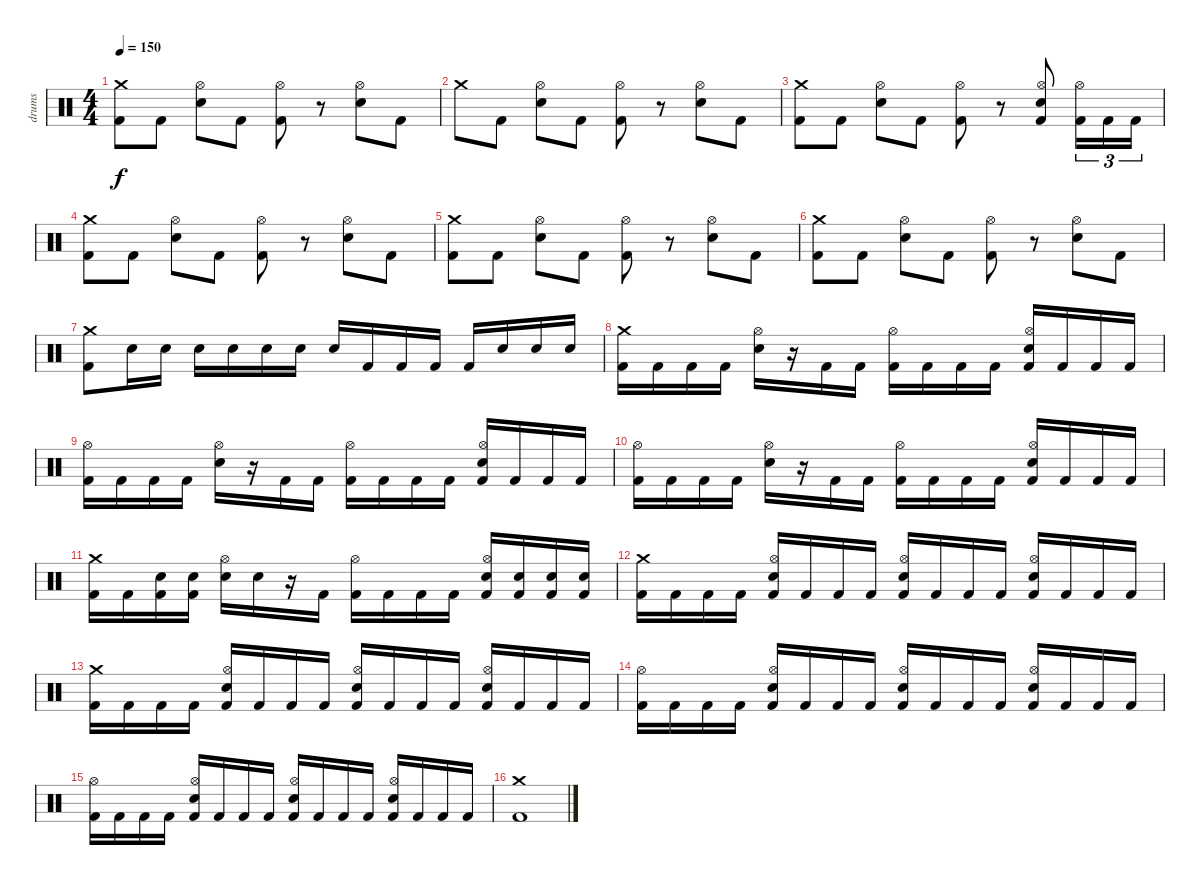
\track ("drums" "drums") {instrument percussion}
\staff {score}
\articulation defaults
\ts (4 4)
\tempo 150
\clef neutral
\ks c
("Crash medium (hit)" "Kick (hit) 2").8{dy f} "Kick (hit) 2".8 ("Hi-Hat (open)" "Electric Snare (hit)").8 "Kick (hit) 2".8 ("Hi-Hat (open)" "Kick (hit) 2").8 r.8 ("Hi-Hat (open)" "Electric Snare (hit)").8 "Kick (hit) 2".8 |
"Crash medium (hit)".8 "Kick (hit) 2".8 ("Hi-Hat (open)" "Electric Snare (hit)").8 "Kick (hit) 2".8 ("Hi-Hat (open)" "Kick (hit) 2").8 r.8 ("Hi-Hat (open)" "Electric Snare (hit)").8 "Kick (hit) 2".8 |
("Crash medium (hit)" "Kick (hit) 2").8 "Kick (hit) 2".8 ("Hi-Hat (open)" "Electric Snare (hit)").8 "Kick (hit) 2".8 ("Hi-Hat (open)" "Kick (hit) 2").8 r.8 ("Hi-Hat (open)" "Electric Snare (hit)" "Kick (hit) 2").8 ("Hi-Hat (open)" "Kick (hit) 2").16{tu (3 2)} "Kick (hit) 2".16{tu (3 2)} "Kick (hit) 2".16{tu (3 2)} |
("Crash medium (hit)" "Kick (hit) 2").8 "Kick (hit) 2".8 ("Hi-Hat (open)" "Electric Snare (hit)").8 "Kick (hit) 2".8 ("Hi-Hat (open)" "Kick (hit) 2").8 r.8 ("Hi-Hat (open)" "Electric Snare (hit)").8 "Kick (hit) 2".8 |
("Crash medium (hit)" "Kick (hit) 2").8 "Kick (hit) 2".8 ("Hi-Hat (open)" "Electric Snare (hit)").8 "Kick (hit) 2".8 ("Hi-Hat (open)" "Kick (hit) 2").8 r.8 ("Hi-Hat (open)" "Electric Snare (hit)").8 "Kick (hit) 2".8 |
("Crash medium (hit)" "Kick (hit) 2").8 "Kick (hit) 2".8 ("Hi-Hat (open)" "Electric Snare (hit)").8 "Kick (hit) 2".8 ("Hi-Hat (open)" "Kick (hit) 2").8 r.8 ("Hi-Hat (open)" "Electric Snare (hit)").8 "Kick (hit) 2".8 |
("Crash medium (hit)" "Kick (hit) 2").8 "Electric Snare (hit)".16 "Electric Snare (hit)".16 "Electric Snare (hit)".16 "Snare (hit) 2".16 "Snare (hit) 2".16 "Snare (hit) 2".16 "Snare (hit) 2".16 "Kick (hit) 2".16 "Kick (hit) 2".16 "Kick (hit) 2".16 "Kick (hit) 2".16 "Electric Snare (hit)".16 "Electric Snare (hit)".16 "Snare (hit) 2".16 |
("Crash medium (hit)" "Kick (hit) 2").16 "Kick (hit) 2".16 "Kick (hit) 2".16 "Kick (hit) 2".16 ("Hi-Hat (open)" "Electric Snare (hit)").16 r.16 "Kick (hit) 2".16 "Kick (hit) 2".16 ("Hi-Hat (open)" "Kick (hit) 2").16 "Kick (hit) 2".16 "Kick (hit) 2".16 "Kick (hit) 2".16 ("Hi-Hat (open)" "Electric Snare (hit)" "Kick (hit) 2").16 "Kick (hit) 2".16 "Kick (hit) 2".16 "Kick (hit) 2".16 |
("Hi-Hat (open)" "Kick (hit) 2").16 "Kick (hit) 2".16 "Kick (hit) 2".16 "Kick (hit) 2".16 ("Hi-Hat (open)" "Electric Snare (hit)").16 r.16 "Kick (hit) 2".16 "Kick (hit) 2".16 ("Hi-Hat (open)" "Kick (hit) 2").16 "Kick (hit) 2".16 "Kick (hit) 2".16 "Kick (hit) 2".16 ("Hi-Hat (open)" "Electric Snare (hit)" "Kick (hit) 2").16 "Kick (hit) 2".16 "Kick (hit) 2".16 "Kick (hit) 2".16 |
("Hi-Hat (open)" "Kick (hit) 2").16 "Kick (hit) 2".16 "Kick (hit) 2".16 "Kick (hit) 2".16 ("Hi-Hat (open)" "Electric Snare (hit)").16 r.16 "Kick (hit) 2".16 "Kick (hit) 2".16 ("Hi-Hat (open)" "Kick (hit) 2").16 "Kick (hit) 2".16 "Kick (hit) 2".16 "Kick (hit) 2".16 ("Hi-Hat (open)" "Electric Snare (hit)" "Kick (hit) 2").16 "Kick (hit) 2".16 "Kick (hit) 2".16 "Kick (hit) 2".16 |
("Crash medium (hit)" "Kick (hit) 2").16 "Kick (hit) 2".16 ("Electric Snare (hit)" "Kick (hit) 2").16 ("Electric Snare (hit)" "Kick (hit) 2").16 ("Hi-Hat (open)" "Electric Snare (hit)").16 "Electric Snare (hit)".16 r.16 "Kick (hit) 2".16 ("Hi-Hat (open)" "Kick (hit) 2").16 "Kick (hit) 2".16 "Kick (hit) 2".16 "Kick (hit) 2".16 ("Hi-Hat (open)" "Electric Snare (hit)" "Kick (hit) 2").16 ("Electric Snare (hit)" "Kick (hit) 2").16 ("Electric Snare (hit)" "Kick (hit) 2").16 ("Electric Snare (hit)" "Kick (hit) 2").16 |
("Crash medium (hit)" "Kick (hit) 2").16 "Kick (hit) 2".16 "Kick (hit) 2".16 "Kick (hit) 2".16 ("Hi-Hat (open)" "Electric Snare (hit)" "Kick (hit) 2").16 "Kick (hit) 2".16 "Kick (hit) 2".16 "Kick (hit) 2".16 ("Hi-Hat (open)" "Electric Snare (hit)" "Kick (hit) 2").16 "Kick (hit) 2".16 "Kick (hit) 2".16 "Kick (hit) 2".16 ("Hi-Hat (open)" "Electric Snare (hit)" "Kick (hit) 2").16 "Kick (hit) 2".16 "Kick (hit) 2".16 "Kick (hit) 2".16 |
("Crash medium (hit)" "Kick (hit) 2").16 "Kick (hit) 2".16 "Kick (hit) 2".16 "Kick (hit) 2".16 ("Hi-Hat (open)" "Electric Snare (hit)" "Kick (hit) 2").16 "Kick (hit) 2".16 "Kick (hit) 2".16 "Kick (hit) 2".16 ("Hi-Hat (open)" "Electric Snare (hit)" "Kick (hit) 2").16 "Kick (hit) 2".16 "Kick (hit) 2".16 "Kick (hit) 2".16 ("Hi-Hat (open)" "Electric Snare (hit)" "Kick (hit) 2").16 "Kick (hit) 2".16 "Kick (hit) 2".16 "Kick (hit) 2".16 |
("Hi-Hat (open)" "Kick (hit) 2").16 "Kick (hit) 2".16 "Kick (hit) 2".16 "Kick (hit) 2".16 ("Hi-Hat (open)" "Electric Snare (hit)" "Kick (hit) 2").16 "Kick (hit) 2".16 "Kick (hit) 2".16 "Kick (hit) 2".16 ("Hi-Hat (open)" "Electric Snare (hit)" "Kick (hit) 2").16 "Kick (hit) 2".16 "Kick (hit) 2".16 "Kick (hit) 2".16 ("Hi-Hat (open)" "Electric Snare (hit)" "Kick (hit) 2").16 "Kick (hit) 2".16 "Kick (hit) 2".16 "Kick (hit) 2".16 |
("Hi-Hat (open)" "Kick (hit) 2").16 "Kick (hit) 2".16 "Kick (hit) 2".16 "Kick (hit) 2".16 ("Hi-Hat (open)" "Electric Snare (hit)" "Kick (hit) 2").16 "Kick (hit) 2".16 "Kick (hit) 2".16 "Kick (hit) 2".16 ("Hi-Hat (open)" "Electric Snare (hit)" "Kick (hit) 2").16 "Kick (hit) 2".16 "Kick (hit) 2".16 "Kick (hit) 2".16 ("Hi-Hat (open)" "Electric Snare (hit)" "Kick (hit) 2").16 "Kick (hit) 2".16 "Kick (hit) 2".16 "Kick (hit) 2".16 |
("Crash medium (hit)" "Kick (hit) 2").1
